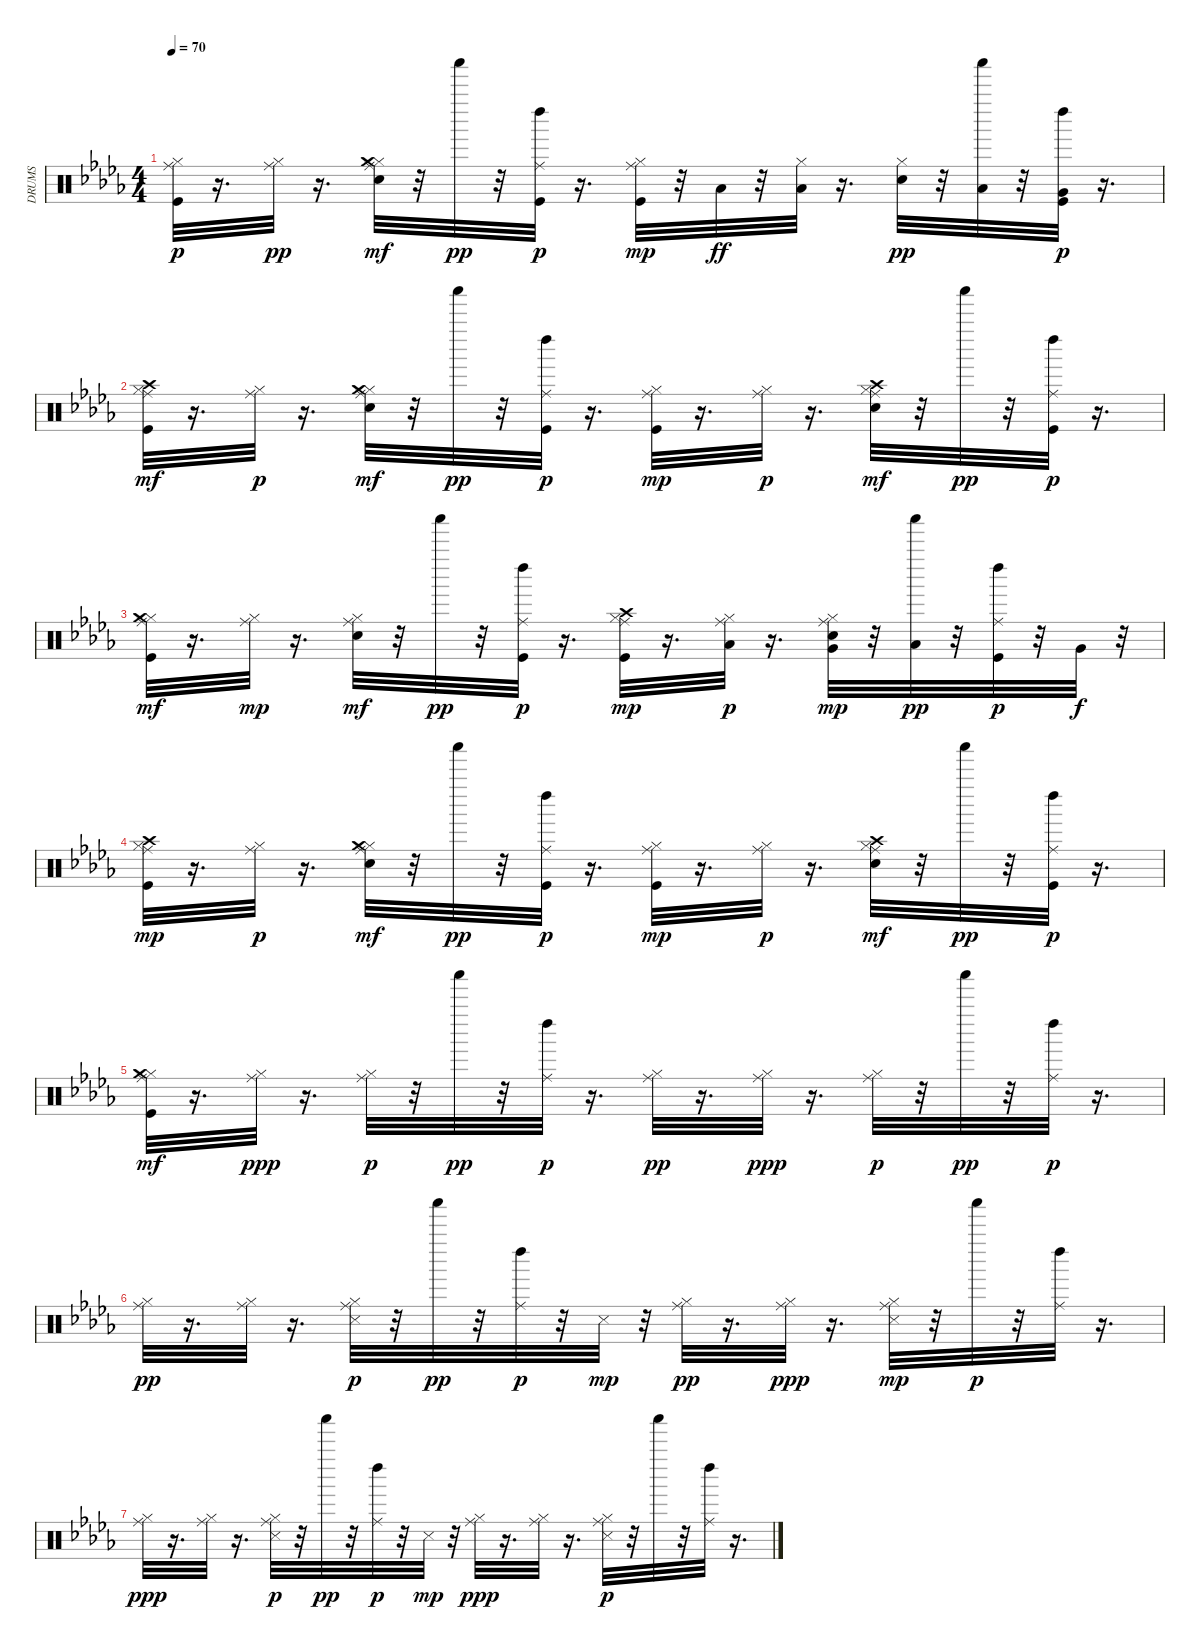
\track ("DRUMS" "DRUMS") {instrument percussion}
\staff {score}
\articulation defaults
\ts (4 4)
\tempo 70
\clef neutral
\ks bbminor
("Kick (hit)" "Hi-Hat (closed)" "Ride (middle)").32{dy p} r.16{d} ("Hi-Hat (closed)" "Ride (middle)").32{dy pp} r.16{d} ("Electric Snare (hit)" "Hi-Hat (closed)" "Ride (middle)" "Crash medium (hit)").32{dy mf} r.32 "Shaker (hit)".32{dy pp} r.32 ("Kick (hit)" "Ride (middle)" "Left Maraca (hit)").32{dy p} r.16{d} ("Kick (hit)" "Hi-Hat (closed)" "Ride (middle)").32{dy mp} r.32 "Low Tom (hit)".32{dy ff} r.32 ("Hi-Hat (closed)" "Low Tom (hit)").32 r.16{d} ("Electric Snare (hit)" "Hi-Hat (closed)").32{dy pp} r.32 ("Low Tom (hit)" "Shaker (hit)").32 r.32 ("Kick (hit)" "Very Low Tom (hit)" "Left Maraca (hit)").32{dy p} r.16{d} |
("Kick (hit)" "Hi-Hat (closed)" "Crash high (hit)" "Ride (middle)").32{dy mf} r.16{d} ("Hi-Hat (closed)" "Ride (middle)").32{dy p} r.16{d} ("Electric Snare (hit)" "Hi-Hat (closed)" "Ride (middle)" "Crash medium (hit)").32{dy mf} r.32 "Shaker (hit)".32{dy pp} r.32 ("Kick (hit)" "Ride (middle)" "Left Maraca (hit)").32{dy p} r.16{d} ("Kick (hit)" "Hi-Hat (closed)" "Ride (middle)").32{dy mp} r.16{d} ("Hi-Hat (closed)" "Ride (middle)").32{dy p} r.16{d} ("Electric Snare (hit)" "Hi-Hat (closed)" "Crash high (hit)" "Ride (middle)").32{dy mf} r.32 "Shaker (hit)".32{dy pp} r.32 ("Kick (hit)" "Ride (middle)" "Left Maraca (hit)").32{dy p} r.16{d} |
("Kick (hit)" "Hi-Hat (closed)" "Ride (middle)" "Crash medium (hit)").32{dy mf} r.16{d} ("Hi-Hat (closed)" "Ride (middle)").32{dy mp} r.16{d} ("Electric Snare (hit)" "Hi-Hat (closed)" "Ride (middle)").32{dy mf} r.32 "Shaker (hit)".32{dy pp} r.32 ("Kick (hit)" "Ride (middle)" "Left Maraca (hit)").32{dy p} r.16{d} ("Kick (hit)" "Hi-Hat (closed)" "Crash high (hit)" "Ride (middle)").32{dy mp} r.16{d} ("Hi-Hat (closed)" "Low Tom (hit)" "Ride (middle)").32{dy p} r.16{d} ("Electric Snare (hit)" "Hi-Hat (closed)" "Very Low Tom (hit)" "Ride (middle)").32{dy mp} r.32 ("Low Tom (hit)" "Shaker (hit)").32{dy pp} r.32 ("Kick (hit)" "Ride (middle)" "Left Maraca (hit)").32{dy p} r.32 "Very Low Tom (hit)".32{dy f} r.32 |
("Kick (hit)" "Hi-Hat (closed)" "Crash high (hit)" "Ride (middle)").32{dy mp} r.16{d} ("Hi-Hat (closed)" "Ride (middle)").32{dy p} r.16{d} ("Electric Snare (hit)" "Hi-Hat (closed)" "Ride (middle)" "Crash medium (hit)").32{dy mf} r.32 "Shaker (hit)".32{dy pp} r.32 ("Kick (hit)" "Ride (middle)" "Left Maraca (hit)").32{dy p} r.16{d} ("Kick (hit)" "Hi-Hat (closed)" "Ride (middle)").32{dy mp} r.16{d} ("Hi-Hat (closed)" "Ride (middle)").32{dy p} r.16{d} ("Electric Snare (hit)" "Hi-Hat (closed)" "Crash high (hit)" "Ride (middle)").32{dy mf} r.32 "Shaker (hit)".32{dy pp} r.32 ("Kick (hit)" "Ride (middle)" "Left Maraca (hit)").32{dy p} r.16{d} |
("Kick (hit)" "Hi-Hat (closed)" "Ride (middle)" "Crash medium (hit)").32{dy mf} r.16{d} ("Hi-Hat (closed)" "Ride (middle)").32{dy ppp} r.16{d} ("Hi-Hat (closed)" "Ride (middle)").32{dy p} r.32 "Shaker (hit)".32{dy pp} r.32 ("Ride (middle)" "Left Maraca (hit)").32{dy p} r.16{d} ("Hi-Hat (closed)" "Ride (middle)").32{dy pp} r.16{d} ("Hi-Hat (closed)" "Ride (middle)").32{dy ppp} r.16{d} ("Hi-Hat (closed)" "Ride (middle)").32{dy p} r.32 "Shaker (hit)".32{dy pp} r.32 ("Ride (middle)" "Left Maraca (hit)").32{dy p} r.16{d} |
("Hi-Hat (closed)" "Ride (middle)").32{dy pp} r.16{d} ("Hi-Hat (closed)" "Ride (middle)").32 r.16{d} ("Snare (side stick) 3" "Hi-Hat (closed)" "Ride (middle)").32{dy p} r.32 "Shaker (hit)".32{dy pp} r.32 ("Ride (middle)" "Left Maraca (hit)").32{dy p} r.32 "Snare (side stick) 3".32{dy mp} r.32 ("Hi-Hat (closed)" "Ride (middle)").32{dy pp} r.16{d} ("Hi-Hat (closed)" "Ride (middle)").32{dy ppp} r.16{d} ("Snare (side stick) 3" "Hi-Hat (closed)" "Ride (middle)").32{dy mp} r.32 "Shaker (hit)".32{dy p} r.32 ("Ride (middle)" "Left Maraca (hit)").32 r.16{d} |
("Hi-Hat (closed)" "Ride (middle)").32{dy ppp} r.16{d} ("Hi-Hat (closed)" "Ride (middle)").32 r.16{d} ("Snare (side stick) 3" "Hi-Hat (closed)" "Ride (middle)").32{dy p} r.32 "Shaker (hit)".32{dy pp} r.32 ("Ride (middle)" "Left Maraca (hit)").32{dy p} r.32 "Snare (side stick) 3".32{dy mp} r.32 ("Hi-Hat (closed)" "Ride (middle)").32{dy ppp} r.16{d} ("Hi-Hat (closed)" "Ride (middle)").32 r.16{d} ("Snare (side stick) 3" "Hi-Hat (closed)" "Ride (middle)").32{dy p} r.32 "Shaker (hit)".32 r.32 ("Ride (middle)" "Left Maraca (hit)").32 r.16{d}
